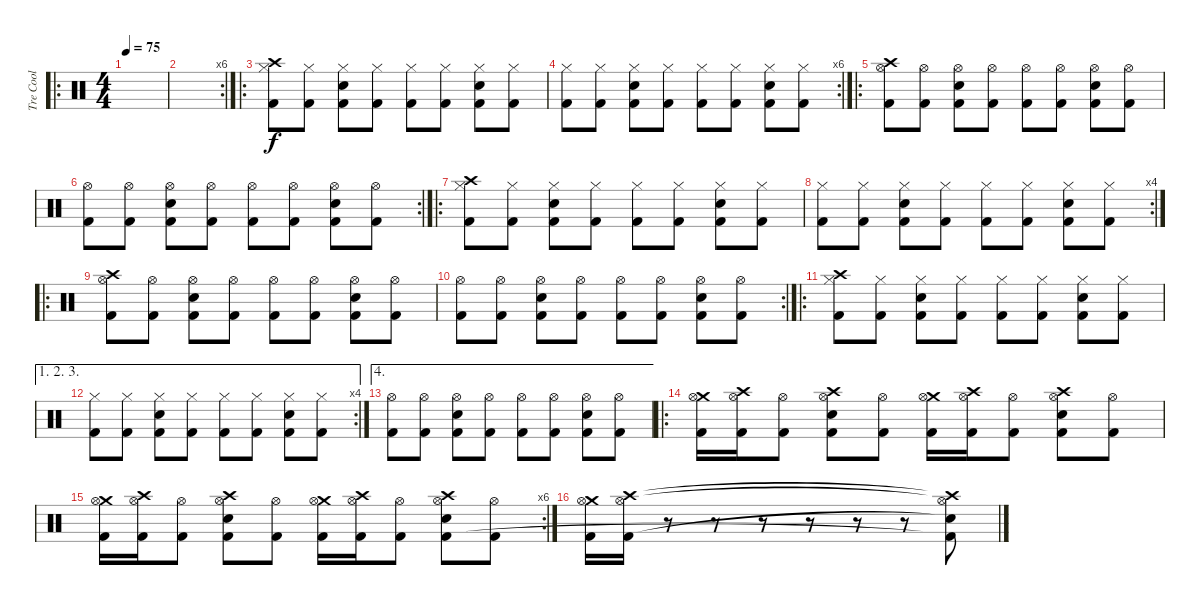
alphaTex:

\track ("Tre Cool" "Tre Cool") {instrument percussion}
\staff {score}
\articulation defaults
\ro
\ts (4 4)
\tempo 75
\clef neutral
\ks c
|
\rc 6
|
\ro
("Crash high (hit)" "Hi-Hat (closed)" "Kick (hit) 2").8 ("Hi-Hat (closed)" "Kick (hit) 2").8 ("Hi-Hat (closed)" "Snare (hit) 2" "Kick (hit) 2").8 ("Hi-Hat (closed)" "Kick (hit) 2").8 ("Hi-Hat (closed)" "Kick (hit) 2").8 ("Hi-Hat (closed)" "Kick (hit) 2").8 ("Hi-Hat (closed)" "Snare (hit) 2" "Kick (hit) 2").8 ("Hi-Hat (closed)" "Kick (hit) 2").8 |
\rc 6
("Hi-Hat (closed)" "Kick (hit) 2").8 ("Hi-Hat (closed)" "Kick (hit) 2").8 ("Hi-Hat (closed)" "Snare (hit) 2" "Kick (hit) 2").8 ("Hi-Hat (closed)" "Kick (hit) 2").8 ("Hi-Hat (closed)" "Kick (hit) 2").8 ("Hi-Hat (closed)" "Kick (hit) 2").8 ("Hi-Hat (closed)" "Snare (hit) 2" "Kick (hit) 2").8 ("Hi-Hat (closed)" "Kick (hit) 2").8 |
\ro
("Crash high (hit)" "Hi-Hat (open)" "Kick (hit) 2").8 ("Hi-Hat (open)" "Kick (hit) 2").8 ("Hi-Hat (open)" "Snare (hit) 2" "Kick (hit) 2").8 ("Hi-Hat (open)" "Kick (hit) 2").8 ("Hi-Hat (open)" "Kick (hit) 2").8 ("Hi-Hat (open)" "Kick (hit) 2").8 ("Hi-Hat (open)" "Snare (hit) 2" "Kick (hit) 2").8 ("Hi-Hat (open)" "Kick (hit) 2").8 |
\rc 2
("Hi-Hat (open)" "Kick (hit) 2").8 ("Hi-Hat (open)" "Kick (hit) 2").8 ("Hi-Hat (open)" "Snare (hit) 2" "Kick (hit) 2").8 ("Hi-Hat (open)" "Kick (hit) 2").8 ("Hi-Hat (open)" "Kick (hit) 2").8 ("Hi-Hat (open)" "Kick (hit) 2").8 ("Hi-Hat (open)" "Snare (hit) 2" "Kick (hit) 2").8 ("Hi-Hat (open)" "Kick (hit) 2").8 |
\ro
("Crash high (hit)" "Hi-Hat (closed)" "Kick (hit) 2").8 ("Hi-Hat (closed)" "Kick (hit) 2").8 ("Hi-Hat (closed)" "Snare (hit) 2" "Kick (hit) 2").8 ("Hi-Hat (closed)" "Kick (hit) 2").8 ("Hi-Hat (closed)" "Kick (hit) 2").8 ("Hi-Hat (closed)" "Kick (hit) 2").8 ("Hi-Hat (closed)" "Snare (hit) 2" "Kick (hit) 2").8 ("Hi-Hat (closed)" "Kick (hit) 2").8 |
\rc 4
("Hi-Hat (closed)" "Kick (hit) 2").8 ("Hi-Hat (closed)" "Kick (hit) 2").8 ("Hi-Hat (closed)" "Snare (hit) 2" "Kick (hit) 2").8 ("Hi-Hat (closed)" "Kick (hit) 2").8 ("Hi-Hat (closed)" "Kick (hit) 2").8 ("Hi-Hat (closed)" "Kick (hit) 2").8 ("Hi-Hat (closed)" "Snare (hit) 2" "Kick (hit) 2").8 ("Hi-Hat (closed)" "Kick (hit) 2").8 |
\ro
("Crash high (hit)" "Hi-Hat (open)" "Kick (hit) 2").8 ("Hi-Hat (open)" "Kick (hit) 2").8 ("Hi-Hat (open)" "Snare (hit) 2" "Kick (hit) 2").8 ("Hi-Hat (open)" "Kick (hit) 2").8 ("Hi-Hat (open)" "Kick (hit) 2").8 ("Hi-Hat (open)" "Kick (hit) 2").8 ("Hi-Hat (open)" "Snare (hit) 2" "Kick (hit) 2").8 ("Hi-Hat (open)" "Kick (hit) 2").8 |
\rc 2
("Hi-Hat (open)" "Kick (hit) 2").8 ("Hi-Hat (open)" "Kick (hit) 2").8 ("Hi-Hat (open)" "Snare (hit) 2" "Kick (hit) 2").8 ("Hi-Hat (open)" "Kick (hit) 2").8 ("Hi-Hat (open)" "Kick (hit) 2").8 ("Hi-Hat (open)" "Kick (hit) 2").8 ("Hi-Hat (open)" "Snare (hit) 2" "Kick (hit) 2").8 ("Hi-Hat (open)" "Kick (hit) 2").8 |
\ro
("Crash high (hit)" "Hi-Hat (closed)" "Kick (hit) 2").8 ("Hi-Hat (closed)" "Kick (hit) 2").8 ("Hi-Hat (closed)" "Snare (hit) 2" "Kick (hit) 2").8 ("Hi-Hat (closed)" "Kick (hit) 2").8 ("Hi-Hat (closed)" "Kick (hit) 2").8 ("Hi-Hat (closed)" "Kick (hit) 2").8 ("Hi-Hat (closed)" "Snare (hit) 2" "Kick (hit) 2").8 ("Hi-Hat (closed)" "Kick (hit) 2").8 |
\ae (1 2 3)
\rc 4
("Hi-Hat (closed)" "Kick (hit) 2").8 ("Hi-Hat (closed)" "Kick (hit) 2").8 ("Hi-Hat (closed)" "Snare (hit) 2" "Kick (hit) 2").8 ("Hi-Hat (closed)" "Kick (hit) 2").8 ("Hi-Hat (closed)" "Kick (hit) 2").8 ("Hi-Hat (closed)" "Kick (hit) 2").8 ("Hi-Hat (closed)" "Snare (hit) 2" "Kick (hit) 2").8 ("Hi-Hat (closed)" "Kick (hit) 2").8 |
\ae 4
("Hi-Hat (open)" "Kick (hit) 2").8 ("Hi-Hat (open)" "Kick (hit) 2").8 ("Hi-Hat (open)" "Snare (hit) 2" "Kick (hit) 2").8 ("Hi-Hat (open)" "Kick (hit) 2").8 ("Hi-Hat (open)" "Kick (hit) 2").8 ("Hi-Hat (open)" "Kick (hit) 2").8 ("Hi-Hat (open)" "Snare (hit) 2" "Kick (hit) 2").8 ("Hi-Hat (open)" "Kick (hit) 2").8 |
\ro
("Crash medium (hit)" "Hi-Hat (open)" "Kick (hit) 2").16 ("Crash high (hit)" "Hi-Hat (open)" "Kick (hit) 2").16 ("Hi-Hat (open)" "Kick (hit) 2").8 ("Crash high (hit)" "Hi-Hat (open)" "Snare (hit) 2" "Kick (hit) 2").8 ("Hi-Hat (open)" "Kick (hit) 2").8 ("Crash medium (hit)" "Hi-Hat (open)" "Kick (hit) 2").16 ("Crash high (hit)" "Hi-Hat (open)" "Kick (hit) 2").16 ("Hi-Hat (open)" "Kick (hit) 2").8 ("Crash high (hit)" "Hi-Hat (open)" "Snare (hit) 2" "Kick (hit) 2").8 ("Hi-Hat (open)" "Kick (hit) 2").8 |
\rc 6
("Crash medium (hit)" "Hi-Hat (open)" "Kick (hit) 2").16 ("Crash high (hit)" "Hi-Hat (open)" "Kick (hit) 2").16 ("Hi-Hat (open)" "Kick (hit) 2").8 ("Crash high (hit)" "Hi-Hat (open)" "Snare (hit) 2" "Kick (hit) 2").8 ("Hi-Hat (open)" "Kick (hit) 2").8 ("Crash medium (hit)" "Hi-Hat (open)" "Kick (hit) 2").16 ("Crash high (hit)" "Hi-Hat (open)" "Kick (hit) 2").16 ("Hi-Hat (open)" "Kick (hit) 2").8 ("Crash high (hit)" "Hi-Hat (open)" "Snare (hit) 2" "Kick (hit) 2").8 ("Hi-Hat (open)" "Kick (hit) 2").8 |
("Crash medium (hit)" "Hi-Hat (open)" "Kick (hit) 2").16 ("Crash high (hit)" "Hi-Hat (open)" "Kick (hit) 2").16 r.8 r.8 r.8 r.8 r.8 r.8 ("Crash high (hit)"{t} "Hi-Hat (open)"{t} "Snare (hit)"{t} "Kick (hit) 2"{t}).8
